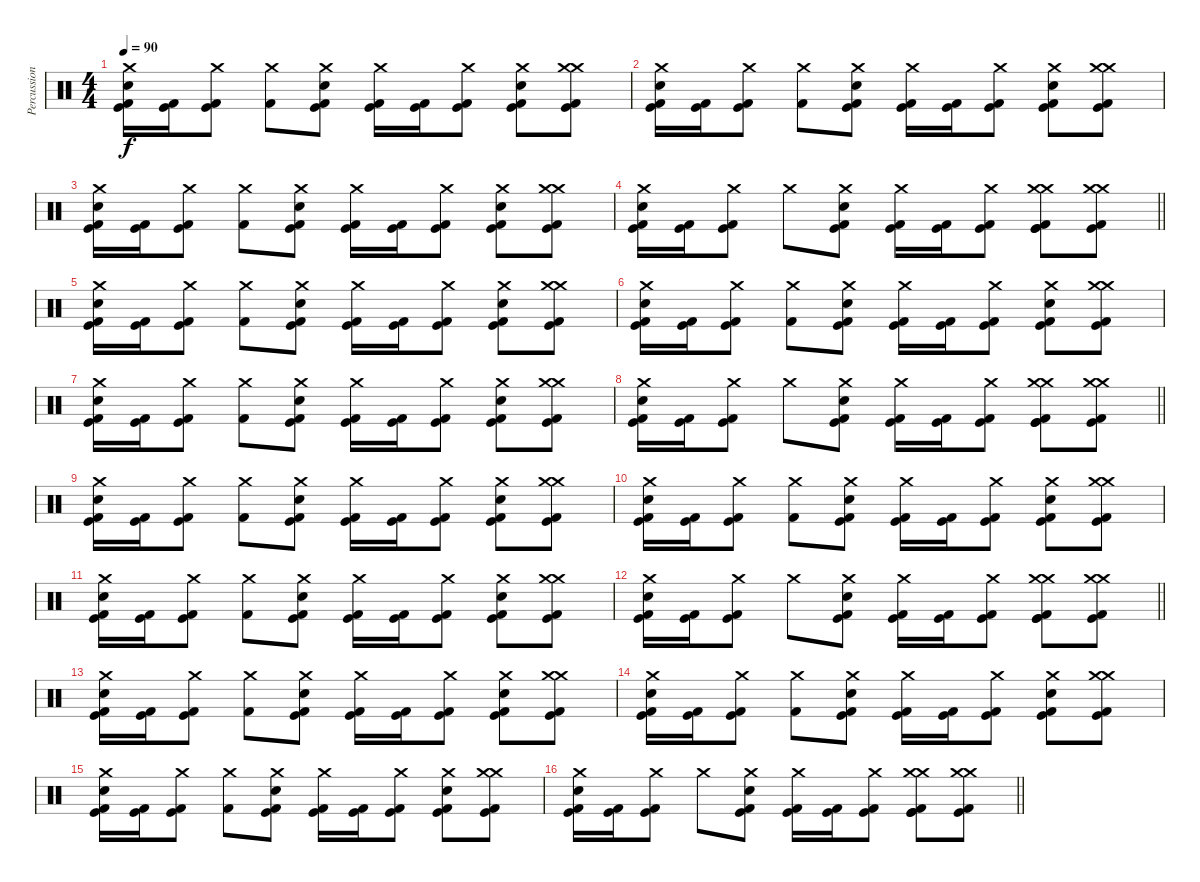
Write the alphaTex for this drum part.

\track ("Percussion" "Percussion") {instrument percussion}
\staff {score}
\articulation defaults
\ts (4 4)
\section ("" "")
\tempo 90
\clef neutral
\ks c
("Crash medium (hit)" "Snare (hit) 2" "Kick (hit)" "Kick (hit) 2").16{dy f} ("Kick (hit)" "Kick (hit) 2").16 ("Crash medium (hit)" "Kick (hit)" "Kick (hit) 2").8 ("Crash medium (hit)" "Kick (hit) 2").8 ("Crash medium (hit)" "Snare (hit) 2" "Kick (hit)" "Kick (hit) 2").8 ("Crash medium (hit)" "Kick (hit)" "Kick (hit) 2").16 ("Kick (hit)" "Kick (hit) 2").16 ("Crash medium (hit)" "Kick (hit)" "Kick (hit) 2").8 ("Crash medium (hit)" "Snare (hit) 2" "Kick (hit)" "Kick (hit) 2").8 ("Crash medium (hit)" "Crash medium (hit)" "Kick (hit)" "Kick (hit) 2").8 |
("Crash medium (hit)" "Snare (hit) 2" "Kick (hit)" "Kick (hit) 2").16 ("Kick (hit)" "Kick (hit) 2").16 ("Crash medium (hit)" "Kick (hit)" "Kick (hit) 2").8 ("Crash medium (hit)" "Kick (hit) 2").8 ("Crash medium (hit)" "Snare (hit) 2" "Kick (hit)" "Kick (hit) 2").8 ("Crash medium (hit)" "Kick (hit)" "Kick (hit) 2").16 ("Kick (hit)" "Kick (hit) 2").16 ("Crash medium (hit)" "Kick (hit)" "Kick (hit) 2").8 ("Crash medium (hit)" "Snare (hit) 2" "Kick (hit)" "Kick (hit) 2").8 ("Crash medium (hit)" "Crash medium (hit)" "Kick (hit)" "Kick (hit) 2").8 |
("Crash medium (hit)" "Snare (hit) 2" "Kick (hit)" "Kick (hit) 2").16 ("Kick (hit)" "Kick (hit) 2").16 ("Crash medium (hit)" "Kick (hit)" "Kick (hit) 2").8 ("Crash medium (hit)" "Kick (hit) 2").8 ("Crash medium (hit)" "Snare (hit) 2" "Kick (hit)" "Kick (hit) 2").8 ("Crash medium (hit)" "Kick (hit)" "Kick (hit) 2").16 ("Kick (hit)" "Kick (hit) 2").16 ("Crash medium (hit)" "Kick (hit)" "Kick (hit) 2").8 ("Crash medium (hit)" "Snare (hit) 2" "Kick (hit)" "Kick (hit) 2").8 ("Crash medium (hit)" "Crash medium (hit)" "Kick (hit)" "Kick (hit) 2").8 |
\barLineRight lightlight
("Crash medium (hit)" "Snare (hit) 2" "Kick (hit)" "Kick (hit) 2").16 ("Kick (hit)" "Kick (hit) 2").16 ("Crash medium (hit)" "Kick (hit)" "Kick (hit) 2").8 "Crash medium (hit)".8 ("Crash medium (hit)" "Snare (hit) 2" "Kick (hit)" "Kick (hit) 2").8 ("Crash medium (hit)" "Kick (hit)" "Kick (hit) 2").16 ("Kick (hit)" "Kick (hit) 2").16 ("Crash medium (hit)" "Kick (hit)" "Kick (hit) 2").8 ("Crash medium (hit)" "Crash medium (hit)" "Kick (hit)" "Kick (hit)" "Kick (hit) 2").8 ("Crash medium (hit)" "Crash medium (hit)" "Kick (hit)" "Kick (hit) 2").8 |
("Crash medium (hit)" "Snare (hit) 2" "Kick (hit)" "Kick (hit) 2").16 ("Kick (hit)" "Kick (hit) 2").16 ("Crash medium (hit)" "Kick (hit)" "Kick (hit) 2").8 ("Crash medium (hit)" "Kick (hit) 2").8 ("Crash medium (hit)" "Snare (hit) 2" "Kick (hit)" "Kick (hit) 2").8 ("Crash medium (hit)" "Kick (hit)" "Kick (hit) 2").16 ("Kick (hit)" "Kick (hit) 2").16 ("Crash medium (hit)" "Kick (hit)" "Kick (hit) 2").8 ("Crash medium (hit)" "Snare (hit) 2" "Kick (hit)" "Kick (hit) 2").8 ("Crash medium (hit)" "Crash medium (hit)" "Kick (hit)" "Kick (hit) 2").8 |
("Crash medium (hit)" "Snare (hit) 2" "Kick (hit)" "Kick (hit) 2").16 ("Kick (hit)" "Kick (hit) 2").16 ("Crash medium (hit)" "Kick (hit)" "Kick (hit) 2").8 ("Crash medium (hit)" "Kick (hit) 2").8 ("Crash medium (hit)" "Snare (hit) 2" "Kick (hit)" "Kick (hit) 2").8 ("Crash medium (hit)" "Kick (hit)" "Kick (hit) 2").16 ("Kick (hit)" "Kick (hit) 2").16 ("Crash medium (hit)" "Kick (hit)" "Kick (hit) 2").8 ("Crash medium (hit)" "Snare (hit) 2" "Kick (hit)" "Kick (hit) 2").8 ("Crash medium (hit)" "Crash medium (hit)" "Kick (hit)" "Kick (hit) 2").8 |
("Crash medium (hit)" "Snare (hit) 2" "Kick (hit)" "Kick (hit) 2").16 ("Kick (hit)" "Kick (hit) 2").16 ("Crash medium (hit)" "Kick (hit)" "Kick (hit) 2").8 ("Crash medium (hit)" "Kick (hit) 2").8 ("Crash medium (hit)" "Snare (hit) 2" "Kick (hit)" "Kick (hit) 2").8 ("Crash medium (hit)" "Kick (hit)" "Kick (hit) 2").16 ("Kick (hit)" "Kick (hit) 2").16 ("Crash medium (hit)" "Kick (hit)" "Kick (hit) 2").8 ("Crash medium (hit)" "Snare (hit) 2" "Kick (hit)" "Kick (hit) 2").8 ("Crash medium (hit)" "Crash medium (hit)" "Kick (hit)" "Kick (hit) 2").8 |
\barLineRight lightlight
("Crash medium (hit)" "Snare (hit) 2" "Kick (hit)" "Kick (hit) 2").16 ("Kick (hit)" "Kick (hit) 2").16 ("Crash medium (hit)" "Kick (hit)" "Kick (hit) 2").8 "Crash medium (hit)".8 ("Crash medium (hit)" "Snare (hit) 2" "Kick (hit)" "Kick (hit) 2").8 ("Crash medium (hit)" "Kick (hit)" "Kick (hit) 2").16 ("Kick (hit)" "Kick (hit) 2").16 ("Crash medium (hit)" "Kick (hit)" "Kick (hit) 2").8 ("Crash medium (hit)" "Crash medium (hit)" "Kick (hit)" "Kick (hit)" "Kick (hit) 2").8 ("Crash medium (hit)" "Crash medium (hit)" "Kick (hit)" "Kick (hit) 2").8 |
\section ("" "")
("Crash medium (hit)" "Snare (hit) 2" "Kick (hit)" "Kick (hit) 2").16 ("Kick (hit)" "Kick (hit) 2").16 ("Crash medium (hit)" "Kick (hit)" "Kick (hit) 2").8 ("Crash medium (hit)" "Kick (hit) 2").8 ("Crash medium (hit)" "Snare (hit) 2" "Kick (hit)" "Kick (hit) 2").8 ("Crash medium (hit)" "Kick (hit)" "Kick (hit) 2").16 ("Kick (hit)" "Kick (hit) 2").16 ("Crash medium (hit)" "Kick (hit)" "Kick (hit) 2").8 ("Crash medium (hit)" "Snare (hit) 2" "Kick (hit)" "Kick (hit) 2").8 ("Crash medium (hit)" "Crash medium (hit)" "Kick (hit)" "Kick (hit) 2").8 |
("Crash medium (hit)" "Snare (hit) 2" "Kick (hit)" "Kick (hit) 2").16 ("Kick (hit)" "Kick (hit) 2").16 ("Crash medium (hit)" "Kick (hit)" "Kick (hit) 2").8 ("Crash medium (hit)" "Kick (hit) 2").8 ("Crash medium (hit)" "Snare (hit) 2" "Kick (hit)" "Kick (hit) 2").8 ("Crash medium (hit)" "Kick (hit)" "Kick (hit) 2").16 ("Kick (hit)" "Kick (hit) 2").16 ("Crash medium (hit)" "Kick (hit)" "Kick (hit) 2").8 ("Crash medium (hit)" "Snare (hit) 2" "Kick (hit)" "Kick (hit) 2").8 ("Crash medium (hit)" "Crash medium (hit)" "Kick (hit)" "Kick (hit) 2").8 |
("Crash medium (hit)" "Snare (hit) 2" "Kick (hit)" "Kick (hit) 2").16 ("Kick (hit)" "Kick (hit) 2").16 ("Crash medium (hit)" "Kick (hit)" "Kick (hit) 2").8 ("Crash medium (hit)" "Kick (hit) 2").8 ("Crash medium (hit)" "Snare (hit) 2" "Kick (hit)" "Kick (hit) 2").8 ("Crash medium (hit)" "Kick (hit)" "Kick (hit) 2").16 ("Kick (hit)" "Kick (hit) 2").16 ("Crash medium (hit)" "Kick (hit)" "Kick (hit) 2").8 ("Crash medium (hit)" "Snare (hit) 2" "Kick (hit)" "Kick (hit) 2").8 ("Crash medium (hit)" "Crash medium (hit)" "Kick (hit)" "Kick (hit) 2").8 |
\barLineRight lightlight
("Crash medium (hit)" "Snare (hit) 2" "Kick (hit)" "Kick (hit) 2").16 ("Kick (hit)" "Kick (hit) 2").16 ("Crash medium (hit)" "Kick (hit)" "Kick (hit) 2").8 "Crash medium (hit)".8 ("Crash medium (hit)" "Snare (hit) 2" "Kick (hit)" "Kick (hit) 2").8 ("Crash medium (hit)" "Kick (hit)" "Kick (hit) 2").16 ("Kick (hit)" "Kick (hit) 2").16 ("Crash medium (hit)" "Kick (hit)" "Kick (hit) 2").8 ("Crash medium (hit)" "Crash medium (hit)" "Kick (hit)" "Kick (hit)" "Kick (hit) 2").8 ("Crash medium (hit)" "Crash medium (hit)" "Kick (hit)" "Kick (hit) 2").8 |
("Crash medium (hit)" "Snare (hit) 2" "Kick (hit)" "Kick (hit) 2").16 ("Kick (hit)" "Kick (hit) 2").16 ("Crash medium (hit)" "Kick (hit)" "Kick (hit) 2").8 ("Crash medium (hit)" "Kick (hit) 2").8 ("Crash medium (hit)" "Snare (hit) 2" "Kick (hit)" "Kick (hit) 2").8 ("Crash medium (hit)" "Kick (hit)" "Kick (hit) 2").16 ("Kick (hit)" "Kick (hit) 2").16 ("Crash medium (hit)" "Kick (hit)" "Kick (hit) 2").8 ("Crash medium (hit)" "Snare (hit) 2" "Kick (hit)" "Kick (hit) 2").8 ("Crash medium (hit)" "Crash medium (hit)" "Kick (hit)" "Kick (hit) 2").8 |
("Crash medium (hit)" "Snare (hit) 2" "Kick (hit)" "Kick (hit) 2").16 ("Kick (hit)" "Kick (hit) 2").16 ("Crash medium (hit)" "Kick (hit)" "Kick (hit) 2").8 ("Crash medium (hit)" "Kick (hit) 2").8 ("Crash medium (hit)" "Snare (hit) 2" "Kick (hit)" "Kick (hit) 2").8 ("Crash medium (hit)" "Kick (hit)" "Kick (hit) 2").16 ("Kick (hit)" "Kick (hit) 2").16 ("Crash medium (hit)" "Kick (hit)" "Kick (hit) 2").8 ("Crash medium (hit)" "Snare (hit) 2" "Kick (hit)" "Kick (hit) 2").8 ("Crash medium (hit)" "Crash medium (hit)" "Kick (hit)" "Kick (hit) 2").8 |
("Crash medium (hit)" "Snare (hit) 2" "Kick (hit)" "Kick (hit) 2").16 ("Kick (hit)" "Kick (hit) 2").16 ("Crash medium (hit)" "Kick (hit)" "Kick (hit) 2").8 ("Crash medium (hit)" "Kick (hit) 2").8 ("Crash medium (hit)" "Snare (hit) 2" "Kick (hit)" "Kick (hit) 2").8 ("Crash medium (hit)" "Kick (hit)" "Kick (hit) 2").16 ("Kick (hit)" "Kick (hit) 2").16 ("Crash medium (hit)" "Kick (hit)" "Kick (hit) 2").8 ("Crash medium (hit)" "Snare (hit) 2" "Kick (hit)" "Kick (hit) 2").8 ("Crash medium (hit)" "Crash medium (hit)" "Kick (hit)" "Kick (hit) 2").8 |
\barLineRight lightlight
("Crash medium (hit)" "Snare (hit) 2" "Kick (hit)" "Kick (hit) 2").16 ("Kick (hit)" "Kick (hit) 2").16 ("Crash medium (hit)" "Kick (hit)" "Kick (hit) 2").8 "Crash medium (hit)".8 ("Crash medium (hit)" "Snare (hit) 2" "Kick (hit)" "Kick (hit) 2").8 ("Crash medium (hit)" "Kick (hit)" "Kick (hit) 2").16 ("Kick (hit)" "Kick (hit) 2").16 ("Crash medium (hit)" "Kick (hit)" "Kick (hit) 2").8 ("Crash medium (hit)" "Crash medium (hit)" "Kick (hit)" "Kick (hit)" "Kick (hit) 2").8 ("Crash medium (hit)" "Crash medium (hit)" "Kick (hit)" "Kick (hit) 2").8
